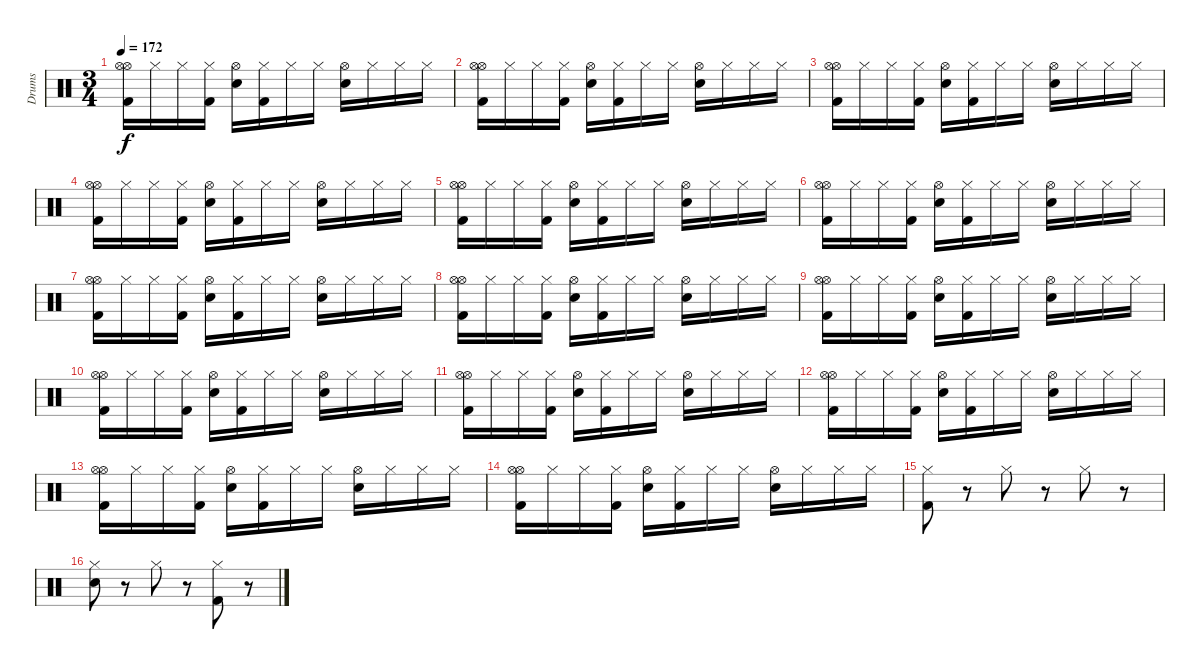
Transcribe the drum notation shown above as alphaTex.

\track ("Drums" "Drums") {instrument percussion}
\staff {score}
\articulation defaults
\ts (3 4)
\tempo 172
\clef neutral
\ks c
("Kick (hit) 2" "Hi-Hat (open)" "Hi-Hat (open)").16{dy f} "Hi-Hat (closed)".16 "Hi-Hat (closed)".16 ("Hi-Hat (closed)" "Kick (hit) 2").16 ("Snare (hit) 2" "Hi-Hat (open)").16 ("Kick (hit) 2" "Hi-Hat (closed)").16 "Hi-Hat (closed)".16 "Hi-Hat (closed)".16 ("Hi-Hat (open)" "Snare (hit) 2").16 "Hi-Hat (closed)".16 "Hi-Hat (closed)".16 "Hi-Hat (closed)".16 |
("Kick (hit) 2" "Hi-Hat (open)" "Hi-Hat (open)").16 "Hi-Hat (closed)".16 "Hi-Hat (closed)".16 ("Hi-Hat (closed)" "Kick (hit) 2").16 ("Snare (hit) 2" "Hi-Hat (open)").16 ("Kick (hit) 2" "Hi-Hat (closed)").16 "Hi-Hat (closed)".16 "Hi-Hat (closed)".16 ("Hi-Hat (open)" "Snare (hit) 2").16 "Hi-Hat (closed)".16 "Hi-Hat (closed)".16 "Hi-Hat (closed)".16 |
("Kick (hit) 2" "Hi-Hat (open)" "Hi-Hat (open)").16 "Hi-Hat (closed)".16 "Hi-Hat (closed)".16 ("Hi-Hat (closed)" "Kick (hit) 2").16 ("Snare (hit) 2" "Hi-Hat (open)").16 ("Kick (hit) 2" "Hi-Hat (closed)").16 "Hi-Hat (closed)".16 "Hi-Hat (closed)".16 ("Hi-Hat (open)" "Snare (hit) 2").16 "Hi-Hat (closed)".16 "Hi-Hat (closed)".16 "Hi-Hat (closed)".16 |
("Kick (hit) 2" "Hi-Hat (open)" "Hi-Hat (open)").16 "Hi-Hat (closed)".16 "Hi-Hat (closed)".16 ("Hi-Hat (closed)" "Kick (hit) 2").16 ("Snare (hit) 2" "Hi-Hat (open)").16 ("Kick (hit) 2" "Hi-Hat (closed)").16 "Hi-Hat (closed)".16 "Hi-Hat (closed)".16 ("Hi-Hat (open)" "Snare (hit) 2").16 "Hi-Hat (closed)".16 "Hi-Hat (closed)".16 "Hi-Hat (closed)".16 |
("Kick (hit) 2" "Hi-Hat (open)" "Hi-Hat (open)").16 "Hi-Hat (closed)".16 "Hi-Hat (closed)".16 ("Hi-Hat (closed)" "Kick (hit) 2").16 ("Snare (hit) 2" "Hi-Hat (open)").16 ("Kick (hit) 2" "Hi-Hat (closed)").16 "Hi-Hat (closed)".16 "Hi-Hat (closed)".16 ("Hi-Hat (open)" "Snare (hit) 2").16 "Hi-Hat (closed)".16 "Hi-Hat (closed)".16 "Hi-Hat (closed)".16 |
("Kick (hit) 2" "Hi-Hat (open)" "Hi-Hat (open)").16 "Hi-Hat (closed)".16 "Hi-Hat (closed)".16 ("Hi-Hat (closed)" "Kick (hit) 2").16 ("Snare (hit) 2" "Hi-Hat (open)").16 ("Kick (hit) 2" "Hi-Hat (closed)").16 "Hi-Hat (closed)".16 "Hi-Hat (closed)".16 ("Hi-Hat (open)" "Snare (hit) 2").16 "Hi-Hat (closed)".16 "Hi-Hat (closed)".16 "Hi-Hat (closed)".16 |
("Kick (hit) 2" "Hi-Hat (open)" "Hi-Hat (open)").16 "Hi-Hat (closed)".16 "Hi-Hat (closed)".16 ("Hi-Hat (closed)" "Kick (hit) 2").16 ("Snare (hit) 2" "Hi-Hat (open)").16 ("Kick (hit) 2" "Hi-Hat (closed)").16 "Hi-Hat (closed)".16 "Hi-Hat (closed)".16 ("Hi-Hat (open)" "Snare (hit) 2").16 "Hi-Hat (closed)".16 "Hi-Hat (closed)".16 "Hi-Hat (closed)".16 |
("Kick (hit) 2" "Hi-Hat (open)" "Hi-Hat (open)").16 "Hi-Hat (closed)".16 "Hi-Hat (closed)".16 ("Hi-Hat (closed)" "Kick (hit) 2").16 ("Snare (hit) 2" "Hi-Hat (open)").16 ("Kick (hit) 2" "Hi-Hat (closed)").16 "Hi-Hat (closed)".16 "Hi-Hat (closed)".16 ("Hi-Hat (open)" "Snare (hit) 2").16 "Hi-Hat (closed)".16 "Hi-Hat (closed)".16 "Hi-Hat (closed)".16 |
("Kick (hit) 2" "Hi-Hat (open)" "Hi-Hat (open)").16 "Hi-Hat (closed)".16 "Hi-Hat (closed)".16 ("Hi-Hat (closed)" "Kick (hit) 2").16 ("Snare (hit) 2" "Hi-Hat (open)").16 ("Kick (hit) 2" "Hi-Hat (closed)").16 "Hi-Hat (closed)".16 "Hi-Hat (closed)".16 ("Hi-Hat (open)" "Snare (hit) 2").16 "Hi-Hat (closed)".16 "Hi-Hat (closed)".16 "Hi-Hat (closed)".16 |
("Kick (hit) 2" "Hi-Hat (open)" "Hi-Hat (open)").16 "Hi-Hat (closed)".16 "Hi-Hat (closed)".16 ("Hi-Hat (closed)" "Kick (hit) 2").16 ("Snare (hit) 2" "Hi-Hat (open)").16 ("Kick (hit) 2" "Hi-Hat (closed)").16 "Hi-Hat (closed)".16 "Hi-Hat (closed)".16 ("Hi-Hat (open)" "Snare (hit) 2").16 "Hi-Hat (closed)".16 "Hi-Hat (closed)".16 "Hi-Hat (closed)".16 |
("Kick (hit) 2" "Hi-Hat (open)" "Hi-Hat (open)").16 "Hi-Hat (closed)".16 "Hi-Hat (closed)".16 ("Hi-Hat (closed)" "Kick (hit) 2").16 ("Snare (hit) 2" "Hi-Hat (open)").16 ("Kick (hit) 2" "Hi-Hat (closed)").16 "Hi-Hat (closed)".16 "Hi-Hat (closed)".16 ("Hi-Hat (open)" "Snare (hit) 2").16 "Hi-Hat (closed)".16 "Hi-Hat (closed)".16 "Hi-Hat (closed)".16 |
("Kick (hit) 2" "Hi-Hat (open)" "Hi-Hat (open)").16 "Hi-Hat (closed)".16 "Hi-Hat (closed)".16 ("Hi-Hat (closed)" "Kick (hit) 2").16 ("Snare (hit) 2" "Hi-Hat (open)").16 ("Kick (hit) 2" "Hi-Hat (closed)").16 "Hi-Hat (closed)".16 "Hi-Hat (closed)".16 ("Hi-Hat (open)" "Snare (hit) 2").16 "Hi-Hat (closed)".16 "Hi-Hat (closed)".16 "Hi-Hat (closed)".16 |
("Kick (hit) 2" "Hi-Hat (open)" "Hi-Hat (open)").16 "Hi-Hat (closed)".16 "Hi-Hat (closed)".16 ("Hi-Hat (closed)" "Kick (hit) 2").16 ("Snare (hit) 2" "Hi-Hat (open)").16 ("Kick (hit) 2" "Hi-Hat (closed)").16 "Hi-Hat (closed)".16 "Hi-Hat (closed)".16 ("Hi-Hat (open)" "Snare (hit) 2").16 "Hi-Hat (closed)".16 "Hi-Hat (closed)".16 "Hi-Hat (closed)".16 |
("Kick (hit) 2" "Hi-Hat (open)" "Hi-Hat (open)").16 "Hi-Hat (closed)".16 "Hi-Hat (closed)".16 ("Hi-Hat (closed)" "Kick (hit) 2").16 ("Snare (hit) 2" "Hi-Hat (open)").16 ("Kick (hit) 2" "Hi-Hat (closed)").16 "Hi-Hat (closed)".16 "Hi-Hat (closed)".16 ("Hi-Hat (open)" "Snare (hit) 2").16 "Hi-Hat (closed)".16 "Hi-Hat (closed)".16 "Hi-Hat (closed)".16 |
("Kick (hit) 2" "Hi-Hat (closed)").8 r.8 "Hi-Hat (closed)".8 r.8 "Hi-Hat (closed)".8 r.8 |
("Snare (hit) 2" "Hi-Hat (closed)").8 r.8 "Hi-Hat (closed)".8 r.8 ("Hi-Hat (closed)" "Kick (hit) 2").8 r.8
